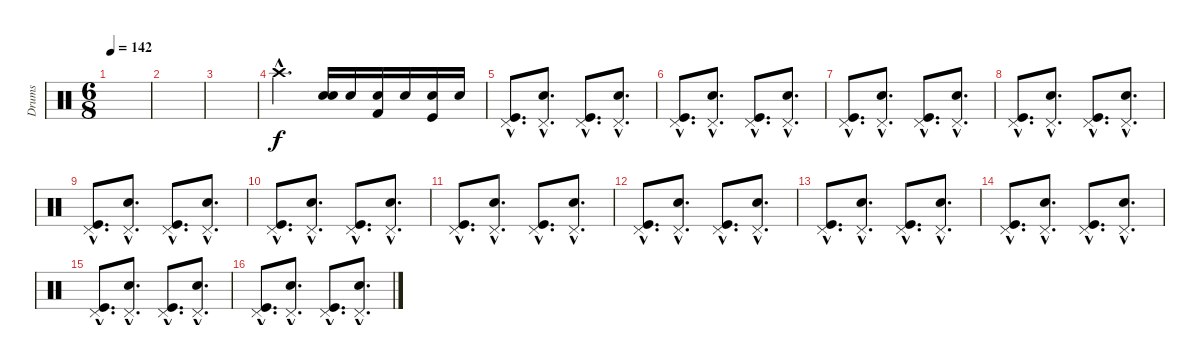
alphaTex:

\track ("Drums" "Drums") {instrument percussion}
\staff {score}
\articulation defaults
\ts (6 8)
\tempo 142
\clef neutral
\ks c
|
|
|
"Crash high (hit)"{hac}.4{d} ("Snare (hit) 2" "Electric Snare (hit)").16 "Snare (hit) 2".16 ("Snare (hit) 2" "Kick (hit) 2").16 "Snare (hit) 2".16 ("Snare (hit) 2" "Kick (hit)").16 "Snare (hit) 2".16 |
("Kick (hit)"{hac} "Pedal Hi-Hat (hit)"{hac}).8{d} ("Snare (hit) 2"{hac} "Pedal Hi-Hat (hit)"{hac}).8{d} ("Kick (hit)"{hac} "Pedal Hi-Hat (hit)"{hac}).8{d} ("Snare (hit) 2"{hac} "Pedal Hi-Hat (hit)"{hac}).8{d} |
("Kick (hit)"{hac} "Pedal Hi-Hat (hit)"{hac}).8{d} ("Snare (hit) 2"{hac} "Pedal Hi-Hat (hit)"{hac}).8{d} ("Kick (hit)"{hac} "Pedal Hi-Hat (hit)"{hac}).8{d} ("Snare (hit) 2"{hac} "Pedal Hi-Hat (hit)"{hac}).8{d} |
("Kick (hit)"{hac} "Pedal Hi-Hat (hit)"{hac}).8{d} ("Snare (hit) 2"{hac} "Pedal Hi-Hat (hit)"{hac}).8{d} ("Kick (hit)"{hac} "Pedal Hi-Hat (hit)"{hac}).8{d} ("Snare (hit) 2"{hac} "Pedal Hi-Hat (hit)"{hac}).8{d} |
("Kick (hit)"{hac} "Pedal Hi-Hat (hit)"{hac}).8{d} ("Snare (hit) 2"{hac} "Pedal Hi-Hat (hit)"{hac}).8{d} ("Kick (hit)"{hac} "Pedal Hi-Hat (hit)"{hac}).8{d} ("Snare (hit) 2"{hac} "Pedal Hi-Hat (hit)"{hac}).8{d} |
("Kick (hit)"{hac} "Pedal Hi-Hat (hit)"{hac}).8{d} ("Snare (hit) 2"{hac} "Pedal Hi-Hat (hit)"{hac}).8{d} ("Kick (hit)"{hac} "Pedal Hi-Hat (hit)"{hac}).8{d} ("Snare (hit) 2"{hac} "Pedal Hi-Hat (hit)"{hac}).8{d} |
("Kick (hit)"{hac} "Pedal Hi-Hat (hit)"{hac}).8{d} ("Snare (hit) 2"{hac} "Pedal Hi-Hat (hit)"{hac}).8{d} ("Kick (hit)"{hac} "Pedal Hi-Hat (hit)"{hac}).8{d} ("Snare (hit) 2"{hac} "Pedal Hi-Hat (hit)"{hac}).8{d} |
("Kick (hit)"{hac} "Pedal Hi-Hat (hit)"{hac}).8{d} ("Snare (hit) 2"{hac} "Pedal Hi-Hat (hit)"{hac}).8{d} ("Kick (hit)"{hac} "Pedal Hi-Hat (hit)"{hac}).8{d} ("Snare (hit) 2"{hac} "Pedal Hi-Hat (hit)"{hac}).8{d} |
("Kick (hit)"{hac} "Pedal Hi-Hat (hit)"{hac}).8{d} ("Snare (hit) 2"{hac} "Pedal Hi-Hat (hit)"{hac}).8{d} ("Kick (hit)"{hac} "Pedal Hi-Hat (hit)"{hac}).8{d} ("Snare (hit) 2"{hac} "Pedal Hi-Hat (hit)"{hac}).8{d} |
("Kick (hit)"{hac} "Pedal Hi-Hat (hit)"{hac}).8{d} ("Snare (hit) 2"{hac} "Pedal Hi-Hat (hit)"{hac}).8{d} ("Kick (hit)"{hac} "Pedal Hi-Hat (hit)"{hac}).8{d} ("Snare (hit) 2"{hac} "Pedal Hi-Hat (hit)"{hac}).8{d} |
("Kick (hit)"{hac} "Pedal Hi-Hat (hit)"{hac}).8{d} ("Snare (hit) 2"{hac} "Pedal Hi-Hat (hit)"{hac}).8{d} ("Kick (hit)"{hac} "Pedal Hi-Hat (hit)"{hac}).8{d} ("Snare (hit) 2"{hac} "Pedal Hi-Hat (hit)"{hac}).8{d} |
("Kick (hit)"{hac} "Pedal Hi-Hat (hit)"{hac}).8{d} ("Snare (hit) 2"{hac} "Pedal Hi-Hat (hit)"{hac}).8{d} ("Kick (hit)"{hac} "Pedal Hi-Hat (hit)"{hac}).8{d} ("Snare (hit) 2"{hac} "Pedal Hi-Hat (hit)"{hac}).8{d} |
("Kick (hit)"{hac} "Pedal Hi-Hat (hit)"{hac}).8{d} ("Snare (hit) 2"{hac} "Pedal Hi-Hat (hit)"{hac}).8{d} ("Kick (hit)"{hac} "Pedal Hi-Hat (hit)"{hac}).8{d} ("Snare (hit) 2"{hac} "Pedal Hi-Hat (hit)"{hac}).8{d}
